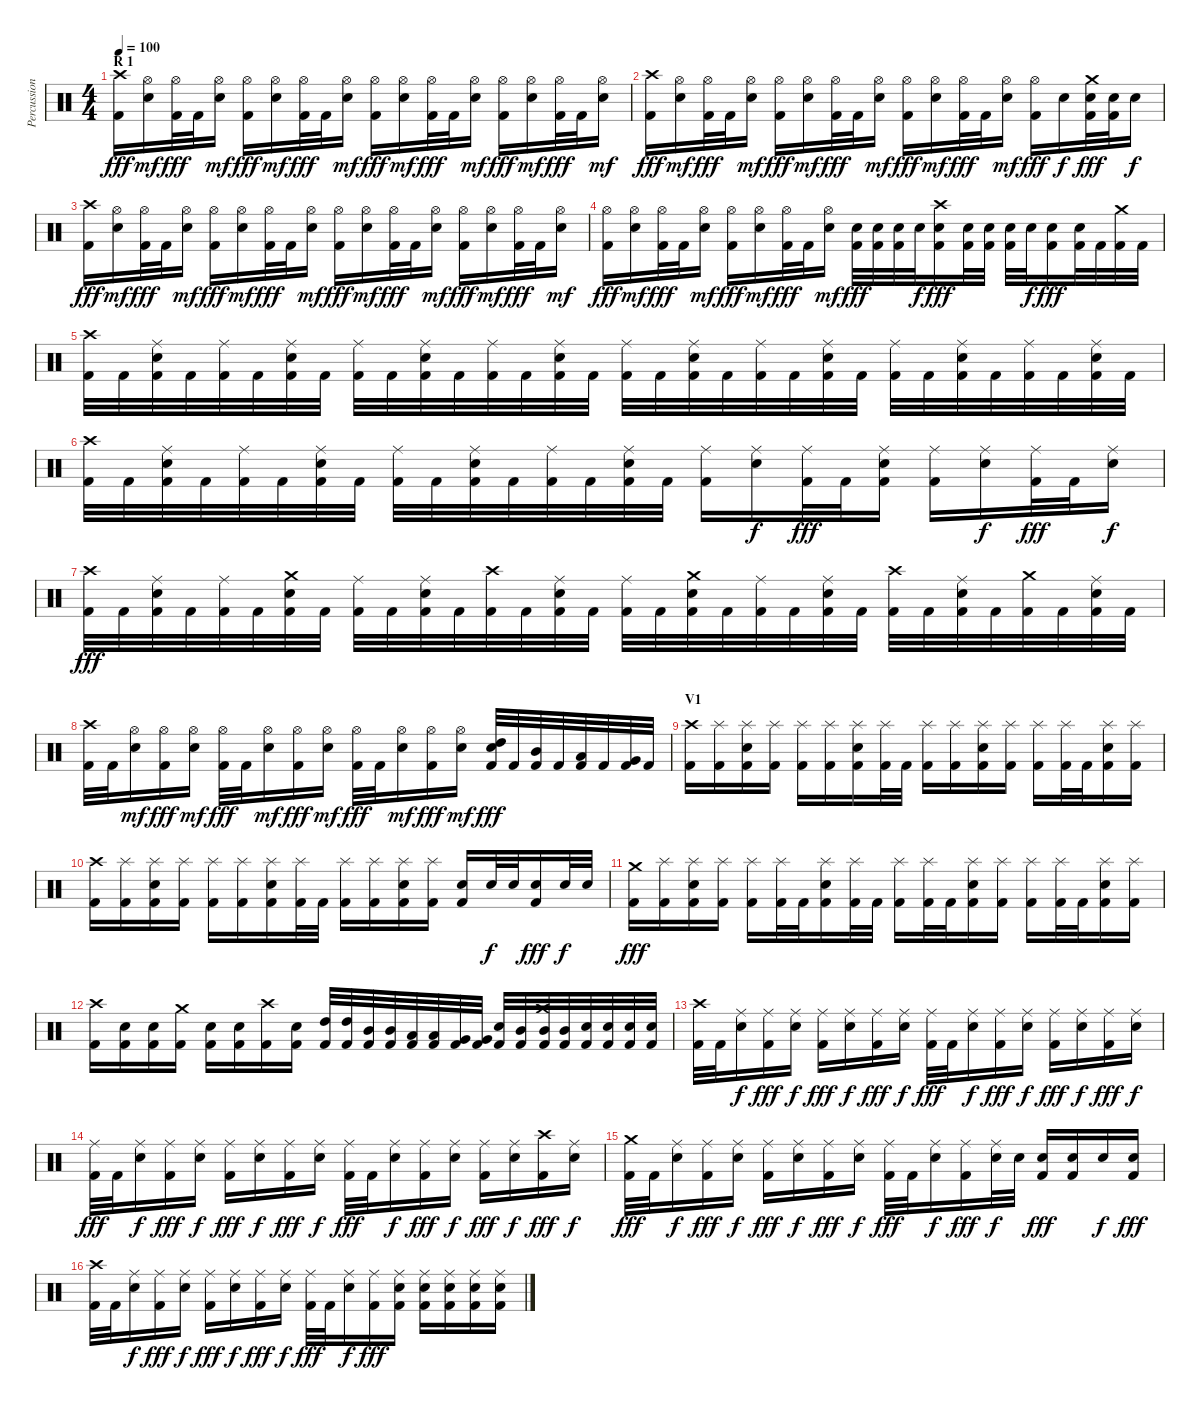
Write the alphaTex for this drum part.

\track ("Percussion" "Percussion") {instrument percussion}
\staff {score}
\articulation defaults
\ts (4 4)
\section ("" "R 1")
\tempo 100
\clef neutral
\ks c
("Crash high (hit)" "Kick (hit) 2").16{dy fff} ("Hi-Hat (open)" "Snare (hit) 2").16{dy mf} ("Hi-Hat (open)" "Kick (hit) 2").32{dy fff} "Kick (hit) 2".32 ("Hi-Hat (open)" "Snare (hit) 2").16{dy mf} ("Hi-Hat (open)" "Kick (hit) 2").16{dy fff} ("Hi-Hat (open)" "Snare (hit) 2").16{dy mf} ("Hi-Hat (open)" "Kick (hit) 2").32{dy fff} "Kick (hit) 2".32 ("Hi-Hat (open)" "Snare (hit) 2").16{dy mf} ("Hi-Hat (open)" "Kick (hit) 2").16{dy fff} ("Hi-Hat (open)" "Snare (hit) 2").16{dy mf} ("Hi-Hat (open)" "Kick (hit) 2").32{dy fff} "Kick (hit) 2".32 ("Hi-Hat (open)" "Snare (hit) 2").16{dy mf} ("Hi-Hat (open)" "Kick (hit) 2").16{dy fff} ("Hi-Hat (open)" "Snare (hit) 2").16{dy mf} ("Hi-Hat (open)" "Kick (hit) 2").32{dy fff} "Kick (hit) 2".32 ("Hi-Hat (open)" "Snare (hit) 2").16{dy mf} |
("Crash high (hit)" "Kick (hit) 2").16{dy fff} ("Hi-Hat (open)" "Snare (hit) 2").16{dy mf} ("Hi-Hat (open)" "Kick (hit) 2").32{dy fff} "Kick (hit) 2".32 ("Hi-Hat (open)" "Snare (hit) 2").16{dy mf} ("Hi-Hat (open)" "Kick (hit) 2").16{dy fff} ("Hi-Hat (open)" "Snare (hit) 2").16{dy mf} ("Hi-Hat (open)" "Kick (hit) 2").32{dy fff} "Kick (hit) 2".32 ("Hi-Hat (open)" "Snare (hit) 2").16{dy mf} ("Hi-Hat (open)" "Kick (hit) 2").16{dy fff} ("Hi-Hat (open)" "Snare (hit) 2").16{dy mf} ("Hi-Hat (open)" "Kick (hit) 2").32{dy fff} "Kick (hit) 2".32 ("Hi-Hat (open)" "Snare (hit) 2").16{dy mf} ("Hi-Hat (open)" "Kick (hit) 2").16{dy fff} "Snare (hit) 2".16{dy f} ("Crash medium (hit)" "Snare (hit) 2" "Kick (hit) 2").32{dy fff} ("Snare (hit) 2" "Kick (hit) 2").32 "Snare (hit) 2".16{dy f} |
("Crash high (hit)" "Kick (hit) 2").16{dy fff} ("Hi-Hat (open)" "Snare (hit) 2").16{dy mf} ("Hi-Hat (open)" "Kick (hit) 2").32{dy fff} "Kick (hit) 2".32 ("Hi-Hat (open)" "Snare (hit) 2").16{dy mf} ("Hi-Hat (open)" "Kick (hit) 2").16{dy fff} ("Hi-Hat (open)" "Snare (hit) 2").16{dy mf} ("Hi-Hat (open)" "Kick (hit) 2").32{dy fff} "Kick (hit) 2".32 ("Hi-Hat (open)" "Snare (hit) 2").16{dy mf} ("Hi-Hat (open)" "Kick (hit) 2").16{dy fff} ("Hi-Hat (open)" "Snare (hit) 2").16{dy mf} ("Hi-Hat (open)" "Kick (hit) 2").32{dy fff} "Kick (hit) 2".32 ("Hi-Hat (open)" "Snare (hit) 2").16{dy mf} ("Hi-Hat (open)" "Kick (hit) 2").16{dy fff} ("Hi-Hat (open)" "Snare (hit) 2").16{dy mf} ("Hi-Hat (open)" "Kick (hit) 2").32{dy fff} "Kick (hit) 2".32 ("Hi-Hat (open)" "Snare (hit) 2").16{dy mf} |
("Hi-Hat (open)" "Kick (hit) 2").16{dy fff} ("Hi-Hat (open)" "Snare (hit) 2").16{dy mf} ("Hi-Hat (open)" "Kick (hit) 2").32{dy fff} "Kick (hit) 2".32 ("Hi-Hat (open)" "Snare (hit) 2").16{dy mf} ("Hi-Hat (open)" "Kick (hit) 2").16{dy fff} ("Hi-Hat (open)" "Snare (hit) 2").16{dy mf} ("Hi-Hat (open)" "Kick (hit) 2").32{dy fff} "Kick (hit) 2".32 ("Hi-Hat (open)" "Snare (hit) 2").16{dy mf} ("Snare (hit) 2" "Kick (hit) 2").32{dy fff} ("Snare (hit) 2" "Kick (hit) 2").32 ("Snare (hit) 2" "Kick (hit) 2").32 "Snare (hit) 2".32{dy f} ("Crash high (hit)" "Snare (hit) 2" "Kick (hit) 2").16{dy fff} ("Snare (hit) 2" "Kick (hit) 2").32 ("Snare (hit) 2" "Kick (hit) 2").32 ("Snare (hit) 2" "Kick (hit) 2").32 "Snare (hit) 2".32{dy f} ("Snare (hit) 2" "Kick (hit) 2").16{dy fff} ("Snare (hit) 2" "Kick (hit) 2").32 "Kick (hit) 2".32 ("Crash medium (hit)" "Kick (hit) 2").32 "Kick (hit) 2".32 |
("Crash high (hit)" "Kick (hit) 2").32 "Kick (hit) 2".32 ("Ride (middle)" "Snare (hit) 2" "Kick (hit) 2").32 "Kick (hit) 2".32 ("Ride (middle)" "Kick (hit) 2").32 "Kick (hit) 2".32 ("Ride (middle)" "Snare (hit) 2" "Kick (hit) 2").32 "Kick (hit) 2".32 ("Ride (middle)" "Kick (hit) 2").32 "Kick (hit) 2".32 ("Ride (middle)" "Snare (hit) 2" "Kick (hit) 2").32 "Kick (hit) 2".32 ("Ride (middle)" "Kick (hit) 2").32 "Kick (hit) 2".32 ("Ride (middle)" "Snare (hit) 2" "Kick (hit) 2").32 "Kick (hit) 2".32 ("Ride (middle)" "Kick (hit) 2").32 "Kick (hit) 2".32 ("Ride (middle)" "Snare (hit) 2" "Kick (hit) 2").32 "Kick (hit) 2".32 ("Ride (middle)" "Kick (hit) 2").32 "Kick (hit) 2".32 ("Ride (middle)" "Snare (hit) 2" "Kick (hit) 2").32 "Kick (hit) 2".32 ("Ride (middle)" "Kick (hit) 2").32 "Kick (hit) 2".32 ("Ride (middle)" "Snare (hit) 2" "Kick (hit) 2").32 "Kick (hit) 2".32 ("Ride (middle)" "Kick (hit) 2").32 "Kick (hit) 2".32 ("Ride (middle)" "Snare (hit) 2" "Kick (hit) 2").32 "Kick (hit) 2".32 |
("Crash high (hit)" "Kick (hit) 2").32 "Kick (hit) 2".32 ("Ride (middle)" "Snare (hit) 2" "Kick (hit) 2").32 "Kick (hit) 2".32 ("Ride (middle)" "Kick (hit) 2").32 "Kick (hit) 2".32 ("Ride (middle)" "Snare (hit) 2" "Kick (hit) 2").32 "Kick (hit) 2".32 ("Ride (middle)" "Kick (hit) 2").32 "Kick (hit) 2".32 ("Ride (middle)" "Snare (hit) 2" "Kick (hit) 2").32 "Kick (hit) 2".32 ("Ride (middle)" "Kick (hit) 2").32 "Kick (hit) 2".32 ("Ride (middle)" "Snare (hit) 2" "Kick (hit) 2").32 "Kick (hit) 2".32 ("Ride (middle)" "Kick (hit) 2").16 ("Ride (middle)" "Snare (hit) 2").16{dy f} ("Ride (middle)" "Kick (hit) 2").32{dy fff} "Kick (hit) 2".32 ("Ride (middle)" "Snare (hit) 2" "Kick (hit) 2").16 ("Ride (middle)" "Kick (hit) 2").16 ("Ride (middle)" "Snare (hit) 2").16{dy f} ("Ride (middle)" "Kick (hit) 2").32{dy fff} "Kick (hit) 2".32 ("Ride (middle)" "Snare (hit) 2").16{dy f} |
("Crash high (hit)" "Kick (hit) 2").32{dy fff} "Kick (hit) 2".32 ("Ride (middle)" "Snare (hit) 2" "Kick (hit) 2").32 "Kick (hit) 2".32 ("Ride (middle)" "Kick (hit) 2").32 "Kick (hit) 2".32 ("Crash medium (hit)" "Snare (hit) 2" "Kick (hit) 2").32 "Kick (hit) 2".32 ("Ride (middle)" "Kick (hit) 2").32 "Kick (hit) 2".32 ("Ride (middle)" "Snare (hit) 2" "Kick (hit) 2").32 "Kick (hit) 2".32 ("Crash high (hit)" "Kick (hit) 2").32 "Kick (hit) 2".32 ("Ride (middle)" "Snare (hit) 2" "Kick (hit) 2").32 "Kick (hit) 2".32 ("Ride (middle)" "Kick (hit) 2").32 "Kick (hit) 2".32 ("Crash medium (hit)" "Snare (hit) 2" "Kick (hit) 2").32 "Kick (hit) 2".32 ("Ride (middle)" "Kick (hit) 2").32 "Kick (hit) 2".32 ("Ride (middle)" "Snare (hit) 2" "Kick (hit) 2").32 "Kick (hit) 2".32 ("Crash high (hit)" "Kick (hit) 2").32 "Kick (hit) 2".32 ("Ride (middle)" "Snare (hit) 2" "Kick (hit) 2").32 "Kick (hit) 2".32 ("Crash medium (hit)" "Kick (hit) 2").32 "Kick (hit) 2".32 ("Ride (middle)" "Snare (hit) 2" "Kick (hit) 2").32 "Kick (hit) 2".32 |
("Crash high (hit)" "Kick (hit) 2").32 "Kick (hit) 2".32 ("Hi-Hat (open)" "Snare (hit) 2").16{dy mf} ("Hi-Hat (open)" "Kick (hit) 2").16{dy fff} ("Hi-Hat (open)" "Snare (hit) 2").16{dy mf} ("Hi-Hat (open)" "Kick (hit) 2").32{dy fff} "Kick (hit) 2".32 ("Hi-Hat (open)" "Snare (hit) 2").16{dy mf} ("Hi-Hat (open)" "Kick (hit) 2").16{dy fff} ("Hi-Hat (open)" "Snare (hit) 2").16{dy mf} ("Hi-Hat (open)" "Kick (hit) 2").32{dy fff} "Kick (hit) 2".32 ("Hi-Hat (open)" "Snare (hit) 2").16{dy mf} ("Hi-Hat (open)" "Kick (hit) 2").16{dy fff} ("Hi-Hat (open)" "Snare (hit) 2").16{dy mf} ("High Tom (hit)" "Snare (hit) 2" "Kick (hit) 2").32{dy fff} "Kick (hit) 2".32 ("Mid Tom (hit)" "Kick (hit) 2").32 "Kick (hit) 2".32 ("Low Tom (hit)" "Kick (hit) 2").32 "Kick (hit) 2".32 ("Very Low Tom (hit)" "Kick (hit) 2").32 "Kick (hit) 2".32 |
\section ("" "V1")
("Crash high (hit)" "Kick (hit) 2").16 ("Splash (hit)" "Kick (hit) 2").16 ("Splash (hit)" "Snare (hit) 2" "Kick (hit) 2").16 ("Splash (hit)" "Kick (hit) 2").16 ("Splash (hit)" "Kick (hit) 2").16 ("Splash (hit)" "Kick (hit) 2").16 ("Splash (hit)" "Snare (hit) 2" "Kick (hit) 2").16 ("Splash (hit)" "Kick (hit) 2").32 "Kick (hit) 2".32 ("Splash (hit)" "Kick (hit) 2").16 ("Splash (hit)" "Kick (hit) 2").16 ("Splash (hit)" "Snare (hit) 2" "Kick (hit) 2").16 ("Splash (hit)" "Kick (hit) 2").16 ("Splash (hit)" "Kick (hit) 2").16 ("Splash (hit)" "Kick (hit) 2").32 "Kick (hit) 2".32 ("Splash (hit)" "Snare (hit) 2" "Kick (hit) 2").16 ("Splash (hit)" "Kick (hit) 2").16 |
("Crash high (hit)" "Kick (hit) 2").16 ("Splash (hit)" "Kick (hit) 2").16 ("Splash (hit)" "Snare (hit) 2" "Kick (hit) 2").16 ("Splash (hit)" "Kick (hit) 2").16 ("Splash (hit)" "Kick (hit) 2").16 ("Splash (hit)" "Kick (hit) 2").16 ("Splash (hit)" "Snare (hit) 2" "Kick (hit) 2").16 ("Splash (hit)" "Kick (hit) 2").32 "Kick (hit) 2".32 ("Splash (hit)" "Kick (hit) 2").16 ("Splash (hit)" "Kick (hit) 2").16 ("Splash (hit)" "Snare (hit) 2" "Kick (hit) 2").16 ("Splash (hit)" "Kick (hit) 2").16 ("Snare (hit) 2" "Kick (hit) 2").16 "Snare (hit) 2".32{dy f} "Snare (hit) 2".32 ("Snare (hit) 2" "Kick (hit) 2").16{dy fff} "Snare (hit) 2".32{dy f} "Snare (hit) 2".32 |
("Crash medium (hit)" "Kick (hit) 2").16{dy fff} ("Splash (hit)" "Kick (hit) 2").16 ("Splash (hit)" "Snare (hit) 2" "Kick (hit) 2").16 ("Splash (hit)" "Kick (hit) 2").16 ("Splash (hit)" "Kick (hit) 2").16 ("Splash (hit)" "Kick (hit) 2").32 "Kick (hit) 2".32 ("Splash (hit)" "Snare (hit) 2" "Kick (hit) 2").16 ("Splash (hit)" "Kick (hit) 2").32 "Kick (hit) 2".32 ("Splash (hit)" "Kick (hit) 2").16 ("Splash (hit)" "Kick (hit) 2").32 "Kick (hit) 2".32 ("Splash (hit)" "Snare (hit) 2" "Kick (hit) 2").16 ("Splash (hit)" "Kick (hit) 2").16 ("Splash (hit)" "Kick (hit) 2").16 ("Splash (hit)" "Kick (hit) 2").32 "Kick (hit) 2".32 ("Splash (hit)" "Snare (hit) 2" "Kick (hit) 2").16 ("Splash (hit)" "Kick (hit) 2").16 |
("Crash high (hit)" "Kick (hit) 2").16 ("Snare (hit) 2" "Kick (hit) 2").16 ("Snare (hit) 2" "Kick (hit) 2").16 ("Crash medium (hit)" "Kick (hit) 2").16 ("Snare (hit) 2" "Kick (hit) 2").16 ("Snare (hit) 2" "Kick (hit) 2").16 ("Crash high (hit)" "Kick (hit) 2").16 ("Snare (hit) 2" "Kick (hit) 2").16 ("High Tom (hit)" "Kick (hit) 2").32 ("High Tom (hit)" "Kick (hit) 2").32 ("Mid Tom (hit)" "Kick (hit) 2").32 ("Mid Tom (hit)" "Kick (hit) 2").32 ("Low Tom (hit)" "Kick (hit) 2").32 ("Low Tom (hit)" "Kick (hit) 2").32 ("Very Low Tom (hit)" "Kick (hit) 2").32 ("Very Low Tom (hit)" "Kick (hit) 2").32 ("Snare (hit) 2" "Kick (hit) 2").32 ("Mid Tom (hit)" "Kick (hit) 2").32 ("Crash medium (hit)" "Mid Tom (hit)" "Kick (hit) 2").32 ("Mid Tom (hit)" "Kick (hit) 2").32 ("Snare (hit) 2" "Kick (hit) 2").32 ("Snare (hit) 2" "Kick (hit) 2").32 ("Snare (hit) 2" "Kick (hit) 2").32 ("Snare (hit) 2" "Kick (hit) 2").32 |
("Crash high (hit)" "Kick (hit) 2").32 "Kick (hit) 2".32 ("Ride (middle)" "Snare (hit) 2").16{dy f} ("Ride (middle)" "Kick (hit) 2").16{dy fff} ("Ride (middle)" "Snare (hit) 2").16{dy f} ("Ride (middle)" "Kick (hit) 2").16{dy fff} ("Ride (middle)" "Snare (hit) 2").16{dy f} ("Ride (middle)" "Kick (hit) 2").16{dy fff} ("Ride (middle)" "Snare (hit) 2").16{dy f} ("Ride (middle)" "Kick (hit) 2").32{dy fff} "Kick (hit) 2".32 ("Ride (middle)" "Snare (hit) 2").16{dy f} ("Ride (middle)" "Kick (hit) 2").16{dy fff} ("Ride (middle)" "Snare (hit) 2").16{dy f} ("Ride (middle)" "Kick (hit) 2").16{dy fff} ("Ride (middle)" "Snare (hit) 2").16{dy f} ("Ride (middle)" "Kick (hit) 2").16{dy fff} ("Ride (middle)" "Snare (hit) 2").16{dy f} |
("Ride (middle)" "Kick (hit) 2").32{dy fff} "Kick (hit) 2".32 ("Ride (middle)" "Snare (hit) 2").16{dy f} ("Ride (middle)" "Kick (hit) 2").16{dy fff} ("Ride (middle)" "Snare (hit) 2").16{dy f} ("Ride (middle)" "Kick (hit) 2").16{dy fff} ("Ride (middle)" "Snare (hit) 2").16{dy f} ("Ride (middle)" "Kick (hit) 2").16{dy fff} ("Ride (middle)" "Snare (hit) 2").16{dy f} ("Ride (middle)" "Kick (hit) 2").32{dy fff} "Kick (hit) 2".32 ("Ride (middle)" "Snare (hit) 2").16{dy f} ("Ride (middle)" "Kick (hit) 2").16{dy fff} ("Ride (middle)" "Snare (hit) 2").16{dy f} ("Ride (middle)" "Kick (hit) 2").16{dy fff} ("Ride (middle)" "Snare (hit) 2").16{dy f} ("Crash high (hit)" "Kick (hit) 2").16{dy fff} ("Ride (middle)" "Snare (hit) 2").16{dy f} |
("Crash medium (hit)" "Kick (hit) 2").32{dy fff} "Kick (hit) 2".32 ("Ride (middle)" "Snare (hit) 2").16{dy f} ("Ride (middle)" "Kick (hit) 2").16{dy fff} ("Ride (middle)" "Snare (hit) 2").16{dy f} ("Ride (middle)" "Kick (hit) 2").16{dy fff} ("Ride (middle)" "Snare (hit) 2").16{dy f} ("Ride (middle)" "Kick (hit) 2").16{dy fff} ("Ride (middle)" "Snare (hit) 2").16{dy f} ("Ride (middle)" "Kick (hit) 2").32{dy fff} "Kick (hit) 2".32 ("Ride (middle)" "Snare (hit) 2").16{dy f} ("Ride (middle)" "Kick (hit) 2").16{dy fff} ("Ride (middle)" "Snare (hit) 2").32{dy f} "Snare (hit) 2".32 ("Snare (hit) 2" "Kick (hit) 2").16{dy fff} ("Snare (hit) 2" "Kick (hit) 2").16 "Snare (hit) 2".16{dy f} ("Snare (hit) 2" "Kick (hit) 2").16{dy fff} |
("Crash high (hit)" "Kick (hit) 2").32 "Kick (hit) 2".32 ("Ride (middle)" "Snare (hit) 2").16{dy f} ("Ride (middle)" "Kick (hit) 2").16{dy fff} ("Ride (middle)" "Snare (hit) 2").16{dy f} ("Ride (middle)" "Kick (hit) 2").16{dy fff} ("Ride (middle)" "Snare (hit) 2").16{dy f} ("Ride (middle)" "Kick (hit) 2").16{dy fff} ("Ride (middle)" "Snare (hit) 2").16{dy f} ("Ride (middle)" "Kick (hit) 2").32{dy fff} "Kick (hit) 2".32 ("Ride (middle)" "Snare (hit) 2").16{dy f} ("Ride (middle)" "Kick (hit) 2").16{dy fff} ("Ride (middle)" "Snare (hit) 2" "Kick (hit) 2").16 ("Ride (middle)" "Snare (hit) 2" "Kick (hit) 2").16 ("Ride (middle)" "Snare (hit) 2" "Kick (hit) 2").16 ("Ride (middle)" "Snare (hit) 2" "Kick (hit) 2").16 ("Ride (middle)" "Snare (hit) 2" "Kick (hit) 2").16
